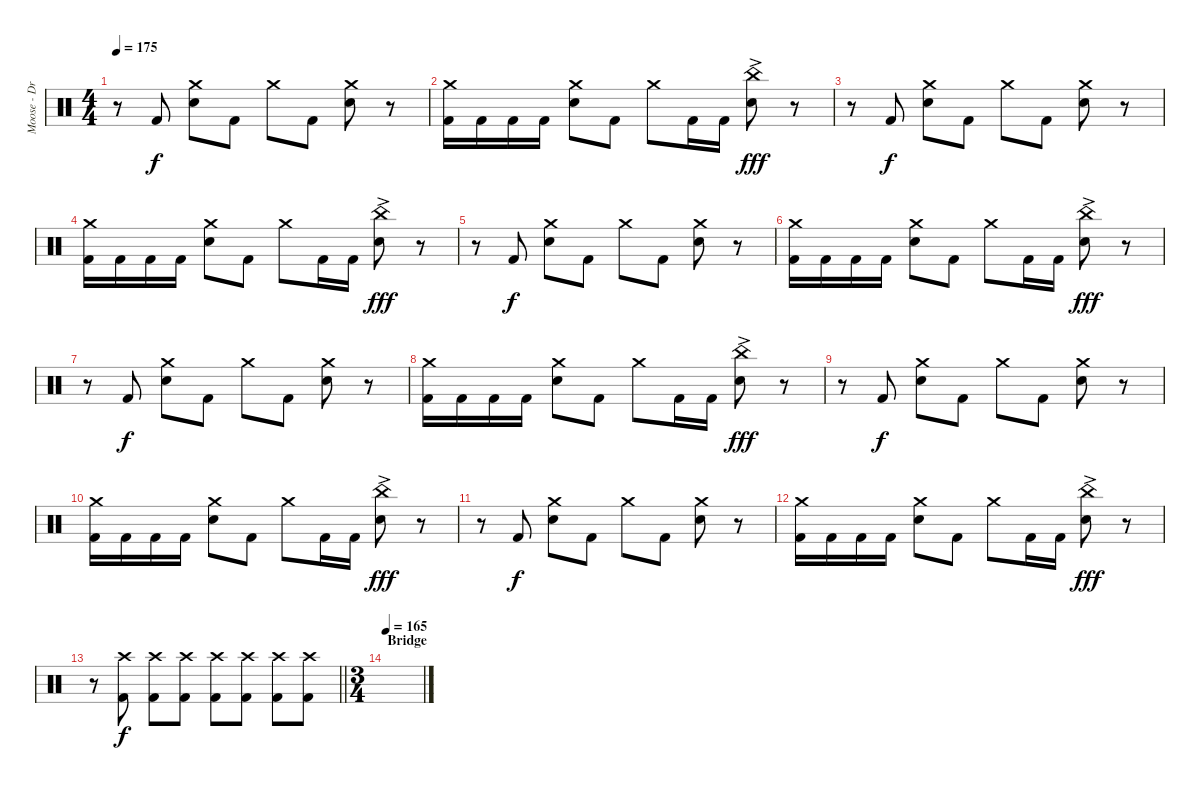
\track ("Moose - Drums" "Moose - Dr") {instrument percussion}
\staff {score}
\articulation defaults
\ts (4 4)
\tempo 175
\clef neutral
\ks c
r.8{dy fff} "Kick (hit) 2".8{dy f} ("Crash medium (hit)" "Electric Snare (hit)").8 "Kick (hit) 2".8 "Crash medium (hit)".8 "Kick (hit) 2".8 ("Crash medium (hit)" "Electric Snare (hit)").8 r.8 |
("Crash medium (hit)" "Kick (hit) 2").16 "Kick (hit) 2".16 "Kick (hit) 2".16 "Kick (hit) 2".16 ("Crash medium (hit)" "Electric Snare (hit)").8 "Kick (hit) 2".8 "Crash medium (hit)".8 "Kick (hit) 2".16 "Kick (hit) 2".16 ("China (hit)"{ac} "Electric Snare (hit)").8{dy fff} r.8 |
r.8 "Kick (hit) 2".8{dy f} ("Crash medium (hit)" "Electric Snare (hit)").8 "Kick (hit) 2".8 "Crash medium (hit)".8 "Kick (hit) 2".8 ("Crash medium (hit)" "Electric Snare (hit)").8 r.8 |
("Crash medium (hit)" "Kick (hit) 2").16 "Kick (hit) 2".16 "Kick (hit) 2".16 "Kick (hit) 2".16 ("Crash medium (hit)" "Electric Snare (hit)").8 "Kick (hit) 2".8 "Crash medium (hit)".8 "Kick (hit) 2".16 "Kick (hit) 2".16 ("China (hit)"{ac} "Electric Snare (hit)").8{dy fff} r.8 |
r.8 "Kick (hit) 2".8{dy f} ("Crash medium (hit)" "Electric Snare (hit)").8 "Kick (hit) 2".8 "Crash medium (hit)".8 "Kick (hit) 2".8 ("Crash medium (hit)" "Electric Snare (hit)").8 r.8 |
("Crash medium (hit)" "Kick (hit) 2").16 "Kick (hit) 2".16 "Kick (hit) 2".16 "Kick (hit) 2".16 ("Crash medium (hit)" "Electric Snare (hit)").8 "Kick (hit) 2".8 "Crash medium (hit)".8 "Kick (hit) 2".16 "Kick (hit) 2".16 ("China (hit)"{ac} "Electric Snare (hit)").8{dy fff} r.8 |
r.8 "Kick (hit) 2".8{dy f} ("Crash medium (hit)" "Electric Snare (hit)").8 "Kick (hit) 2".8 "Crash medium (hit)".8 "Kick (hit) 2".8 ("Crash medium (hit)" "Electric Snare (hit)").8 r.8 |
("Crash medium (hit)" "Kick (hit) 2").16 "Kick (hit) 2".16 "Kick (hit) 2".16 "Kick (hit) 2".16 ("Crash medium (hit)" "Electric Snare (hit)").8 "Kick (hit) 2".8 "Crash medium (hit)".8 "Kick (hit) 2".16 "Kick (hit) 2".16 ("China (hit)"{ac} "Electric Snare (hit)").8{dy fff} r.8 |
r.8 "Kick (hit) 2".8{dy f} ("Crash medium (hit)" "Electric Snare (hit)").8 "Kick (hit) 2".8 "Crash medium (hit)".8 "Kick (hit) 2".8 ("Crash medium (hit)" "Electric Snare (hit)").8 r.8 |
("Crash medium (hit)" "Kick (hit) 2").16 "Kick (hit) 2".16 "Kick (hit) 2".16 "Kick (hit) 2".16 ("Crash medium (hit)" "Electric Snare (hit)").8 "Kick (hit) 2".8 "Crash medium (hit)".8 "Kick (hit) 2".16 "Kick (hit) 2".16 ("China (hit)"{ac} "Electric Snare (hit)").8{dy fff} r.8 |
r.8 "Kick (hit) 2".8{dy f} ("Crash medium (hit)" "Electric Snare (hit)").8 "Kick (hit) 2".8 "Crash medium (hit)".8 "Kick (hit) 2".8 ("Crash medium (hit)" "Electric Snare (hit)").8 r.8 |
("Crash medium (hit)" "Kick (hit) 2").16 "Kick (hit) 2".16 "Kick (hit) 2".16 "Kick (hit) 2".16 ("Crash medium (hit)" "Electric Snare (hit)").8 "Kick (hit) 2".8 "Crash medium (hit)".8 "Kick (hit) 2".16 "Kick (hit) 2".16 ("China (hit)"{ac} "Electric Snare (hit)").8{dy fff} r.8 |
\barLineRight lightlight
r.8 ("Crash high (hit)" "Kick (hit) 2").8{dy f} ("Crash high (hit)" "Kick (hit) 2").8 ("Crash high (hit)" "Kick (hit) 2").8 ("Crash high (hit)" "Kick (hit) 2").8 ("Crash high (hit)" "Kick (hit) 2").8 ("Crash high (hit)" "Kick (hit) 2").8 ("Crash high (hit)" "Kick (hit) 2").8 |
\ts (3 4)
\section ("" "Bridge")
\tempo 165
